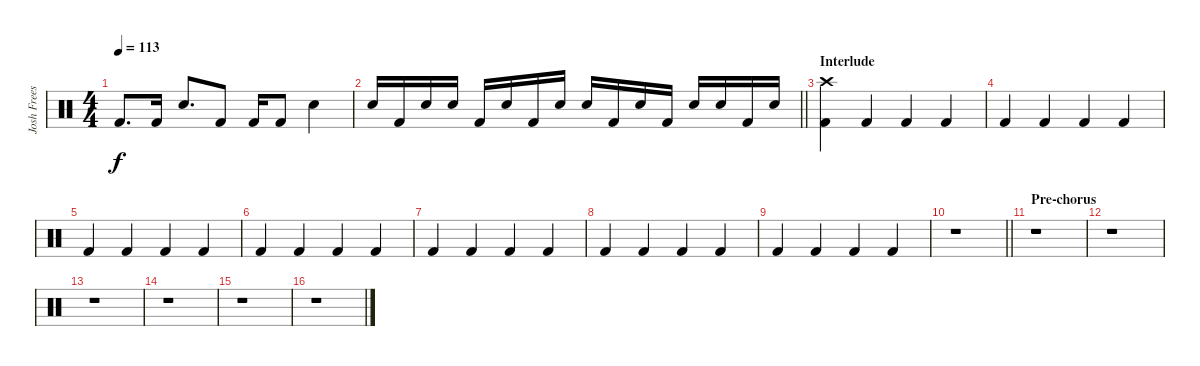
\track ("Josh Freese (Studio Drummer)" "Josh Frees") {instrument percussion}
\staff {score}
\articulation defaults
\ts (4 4)
\tempo 113
\clef neutral
\ks c "Kick (hit) 2".8{d dy f} "Kick (hit) 2".16 "Electric Snare (hit)".8{d} "Kick (hit) 2".8 "Kick (hit) 2".16 "Kick (hit) 2".8 "Electric Snare (hit)".4
|
\barLineRight lightlight "Electric Snare (hit)".16 "Kick (hit) 2".16 "Electric Snare (hit)".16 "Electric Snare (hit)".16 "Kick (hit) 2".16 "Electric Snare (hit)".16 "Kick (hit) 2".16 "Electric Snare (hit)".16 "Electric Snare (hit)".16 "Kick (hit) 2".16 "Electric Snare (hit)".16 "Kick (hit) 2".16 "Electric Snare (hit)".16 "Electric Snare (hit)".16 "Kick (hit) 2".16 "Electric Snare (hit)".16
|
\section ("" "Interlude")
("Crash high (hit)" "Kick (hit) 2").4 "Kick (hit) 2".4 "Kick (hit) 2".4 "Kick (hit) 2".4 |
"Kick (hit) 2".4 "Kick (hit) 2".4 "Kick (hit) 2".4 "Kick (hit) 2".4 |
"Kick (hit) 2".4 "Kick (hit) 2".4 "Kick (hit) 2".4 "Kick (hit) 2".4 |
"Kick (hit) 2".4 "Kick (hit) 2".4 "Kick (hit) 2".4 "Kick (hit) 2".4 |
"Kick (hit) 2".4 "Kick (hit) 2".4 "Kick (hit) 2".4 "Kick (hit) 2".4 |
"Kick (hit) 2".4 "Kick (hit) 2".4 "Kick (hit) 2".4 "Kick (hit) 2".4 |
"Kick (hit) 2".4 "Kick (hit) 2".4 "Kick (hit) 2".4 "Kick (hit) 2".4 |
\barLineRight lightlight
r.1 |
\section ("" "Pre-chorus")
r.1 |
r.1 |
r.1 |
r.1 |
r.1 |
r.1
